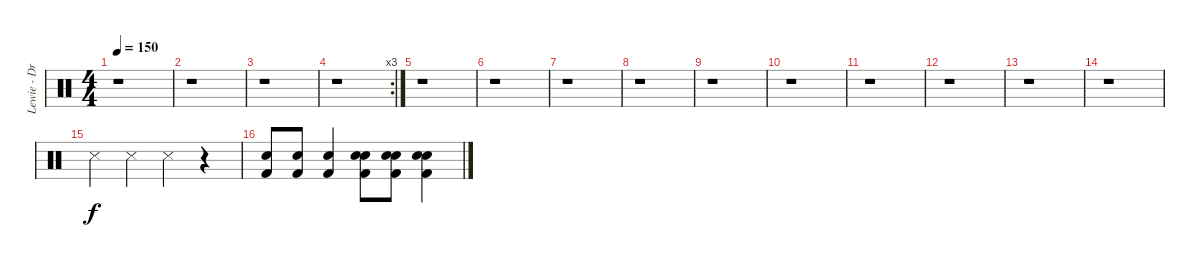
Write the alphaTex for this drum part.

\track ("Lewie - Drums" "Lewie - Dr") {instrument percussion}
\staff {score}
\articulation defaults
\ts (4 4)
\tempo 150
\clef neutral
\ks c
r.1{dy f} |
r.1 |
r.1 |
\rc 3
r.1 |
r.1 |
r.1 |
r.1 |
r.1 |
r.1 |
r.1 |
r.1 |
r.1 |
r.1 |
r.1 |
"Metronome (hit)".4 "Metronome (hit)".4 "Metronome (hit)".4 r.4 |
("Snare (hit) 2" "Kick (hit) 2").8 ("Electric Snare (hit)" "Kick (hit) 2").8 ("Snare (hit) 2" "Kick (hit) 2").4 ("Snare (hit) 2" "Electric Snare (hit)" "Kick (hit) 2").8 ("Snare (hit) 2" "Electric Snare (hit)" "Kick (hit) 2").8 ("Snare (hit) 2" "Electric Snare (hit)" "Kick (hit) 2").4
